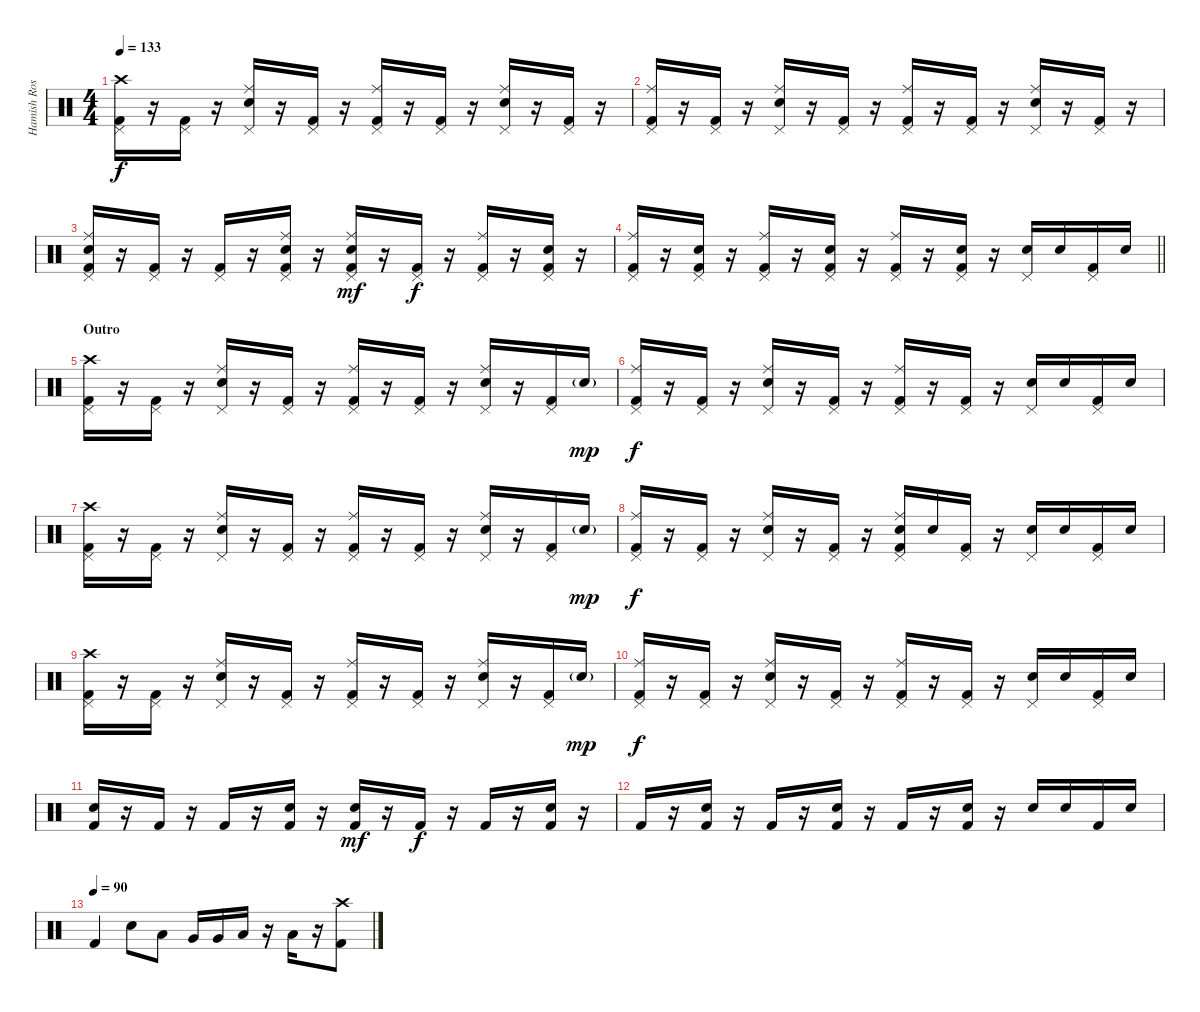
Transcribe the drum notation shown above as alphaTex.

\track ("Hamish Rosser (Main-Tune Drums Track)" "Hamish Ros") {instrument percussion}
\staff {score}
\articulation defaults
\ts (4 4)
\tempo 133
\clef neutral
\ks c
("Crash high (hit)" "Pedal Hi-Hat (hit)" "Kick (hit) 2").16{dy f} r.16 ("Pedal Hi-Hat (hit)" "Kick (hit) 2").16 r.16 ("Ride (middle)" "Pedal Hi-Hat (hit)" "Snare (hit) 2").16 r.16 ("Pedal Hi-Hat (hit)" "Kick (hit) 2").16 r.16 ("Ride (middle)" "Pedal Hi-Hat (hit)" "Kick (hit) 2").16 r.16 ("Pedal Hi-Hat (hit)" "Kick (hit) 2").16 r.16 ("Ride (middle)" "Pedal Hi-Hat (hit)" "Snare (hit) 2").16 r.16 ("Pedal Hi-Hat (hit)" "Kick (hit) 2").16 r.16 |
("Ride (middle)" "Pedal Hi-Hat (hit)" "Kick (hit) 2").16 r.16 ("Pedal Hi-Hat (hit)" "Kick (hit) 2").16 r.16 ("Ride (middle)" "Pedal Hi-Hat (hit)" "Snare (hit) 2").16 r.16 ("Pedal Hi-Hat (hit)" "Kick (hit) 2").16 r.16 ("Ride (middle)" "Pedal Hi-Hat (hit)" "Kick (hit) 2").16 r.16 ("Pedal Hi-Hat (hit)" "Kick (hit) 2").16 r.16 ("Ride (middle)" "Pedal Hi-Hat (hit)" "Snare (hit) 2").16 r.16 ("Pedal Hi-Hat (hit)" "Kick (hit) 2").16 r.16 |
("Ride (middle)" "Pedal Hi-Hat (hit)" "Snare (hit) 2" "Kick (hit) 2").16 r.16 ("Pedal Hi-Hat (hit)" "Kick (hit) 2").16 r.16 ("Pedal Hi-Hat (hit)" "Kick (hit) 2").16 r.16 ("Ride (middle)" "Pedal Hi-Hat (hit)" "Snare (hit) 2" "Kick (hit) 2").16 r.16 ("Ride (middle)" "Pedal Hi-Hat (hit)" "Snare (hit) 2" "Kick (hit) 2").16{dy mf} r.16 ("Pedal Hi-Hat (hit)" "Kick (hit) 2").16{dy f} r.16 ("Ride (middle)" "Pedal Hi-Hat (hit)" "Kick (hit) 2").16 r.16 ("Pedal Hi-Hat (hit)" "Snare (hit) 2" "Kick (hit) 2").16 r.16 |
\barLineRight lightlight
("Ride (middle)" "Pedal Hi-Hat (hit)" "Kick (hit) 2").16 r.16 ("Pedal Hi-Hat (hit)" "Snare (hit) 2" "Kick (hit) 2").16 r.16 ("Ride (middle)" "Pedal Hi-Hat (hit)" "Kick (hit) 2").16 r.16 ("Pedal Hi-Hat (hit)" "Snare (hit) 2" "Kick (hit) 2").16 r.16 ("Ride (middle)" "Pedal Hi-Hat (hit)" "Kick (hit) 2").16 r.16 ("Pedal Hi-Hat (hit)" "Snare (hit) 2" "Kick (hit) 2").16 r.16 ("Pedal Hi-Hat (hit)" "Snare (hit) 2").16 "Snare (hit) 2".16 ("Pedal Hi-Hat (hit)" "Kick (hit) 2").16 "Snare (hit) 2".16 |
\section ("" "Outro")
("Crash high (hit)" "Pedal Hi-Hat (hit)" "Kick (hit) 2").16 r.16 ("Pedal Hi-Hat (hit)" "Kick (hit) 2").16 r.16 ("Ride (middle)" "Pedal Hi-Hat (hit)" "Snare (hit) 2").16 r.16 ("Pedal Hi-Hat (hit)" "Kick (hit) 2").16 r.16 ("Ride (middle)" "Pedal Hi-Hat (hit)" "Kick (hit) 2").16 r.16 ("Pedal Hi-Hat (hit)" "Kick (hit) 2").16 r.16 ("Ride (middle)" "Pedal Hi-Hat (hit)" "Snare (hit) 2").16 r.16 ("Pedal Hi-Hat (hit)" "Kick (hit) 2").16 "Snare (hit) 2"{g}.16{dy mp} |
("Ride (middle)" "Pedal Hi-Hat (hit)" "Kick (hit) 2").16{dy f} r.16 ("Pedal Hi-Hat (hit)" "Kick (hit) 2").16 r.16 ("Ride (middle)" "Pedal Hi-Hat (hit)" "Snare (hit) 2").16 r.16 ("Pedal Hi-Hat (hit)" "Kick (hit) 2").16 r.16 ("Ride (middle)" "Pedal Hi-Hat (hit)" "Kick (hit) 2").16 r.16 ("Pedal Hi-Hat (hit)" "Kick (hit) 2").16 r.16 ("Pedal Hi-Hat (hit)" "Snare (hit) 2").16 "Snare (hit) 2".16 ("Pedal Hi-Hat (hit)" "Kick (hit) 2").16 "Snare (hit) 2".16 |
("Crash high (hit)" "Pedal Hi-Hat (hit)" "Kick (hit) 2").16 r.16 ("Pedal Hi-Hat (hit)" "Kick (hit) 2").16 r.16 ("Ride (middle)" "Pedal Hi-Hat (hit)" "Snare (hit) 2").16 r.16 ("Pedal Hi-Hat (hit)" "Kick (hit) 2").16 r.16 ("Ride (middle)" "Pedal Hi-Hat (hit)" "Kick (hit) 2").16 r.16 ("Pedal Hi-Hat (hit)" "Kick (hit) 2").16 r.16 ("Ride (middle)" "Pedal Hi-Hat (hit)" "Snare (hit) 2").16 r.16 ("Pedal Hi-Hat (hit)" "Kick (hit) 2").16 "Snare (hit) 2"{g}.16{dy mp} |
("Ride (middle)" "Pedal Hi-Hat (hit)" "Kick (hit) 2").16{dy f} r.16 ("Pedal Hi-Hat (hit)" "Kick (hit) 2").16 r.16 ("Ride (middle)" "Pedal Hi-Hat (hit)" "Snare (hit) 2").16 r.16 ("Pedal Hi-Hat (hit)" "Kick (hit) 2").16 r.16 ("Ride (middle)" "Pedal Hi-Hat (hit)" "Snare (hit) 2" "Kick (hit) 2").16 "Snare (hit) 2".16 ("Pedal Hi-Hat (hit)" "Kick (hit) 2").16 r.16 ("Pedal Hi-Hat (hit)" "Snare (hit) 2").16 "Snare (hit) 2".16 ("Pedal Hi-Hat (hit)" "Kick (hit) 2").16 "Snare (hit) 2".16 |
("Crash high (hit)" "Pedal Hi-Hat (hit)" "Kick (hit) 2").16 r.16 ("Pedal Hi-Hat (hit)" "Kick (hit) 2").16 r.16 ("Ride (middle)" "Pedal Hi-Hat (hit)" "Snare (hit) 2").16 r.16 ("Pedal Hi-Hat (hit)" "Kick (hit) 2").16 r.16 ("Ride (middle)" "Pedal Hi-Hat (hit)" "Kick (hit) 2").16 r.16 ("Pedal Hi-Hat (hit)" "Kick (hit) 2").16 r.16 ("Ride (middle)" "Pedal Hi-Hat (hit)" "Snare (hit) 2").16 r.16 ("Pedal Hi-Hat (hit)" "Kick (hit) 2").16 "Snare (hit) 2"{g}.16{dy mp} |
("Ride (middle)" "Pedal Hi-Hat (hit)" "Kick (hit) 2").16{dy f} r.16 ("Pedal Hi-Hat (hit)" "Kick (hit) 2").16 r.16 ("Ride (middle)" "Pedal Hi-Hat (hit)" "Snare (hit) 2").16 r.16 ("Pedal Hi-Hat (hit)" "Kick (hit) 2").16 r.16 ("Ride (middle)" "Pedal Hi-Hat (hit)" "Kick (hit) 2").16 r.16 ("Pedal Hi-Hat (hit)" "Kick (hit) 2").16 r.16 ("Pedal Hi-Hat (hit)" "Snare (hit) 2").16 "Snare (hit) 2".16 ("Pedal Hi-Hat (hit)" "Kick (hit) 2").16 "Snare (hit) 2".16 |
("Snare (hit) 2" "Kick (hit) 2").16 r.16 "Kick (hit) 2".16 r.16 "Kick (hit) 2".16 r.16 ("Snare (hit) 2" "Kick (hit) 2").16 r.16 ("Snare (hit) 2" "Kick (hit) 2").16{dy mf} r.16 "Kick (hit) 2".16{dy f} r.16 "Kick (hit) 2".16 r.16 ("Snare (hit) 2" "Kick (hit) 2").16 r.16 |
"Kick (hit) 2".16 r.16 ("Snare (hit) 2" "Kick (hit) 2").16 r.16 "Kick (hit) 2".16 r.16 ("Snare (hit) 2" "Kick (hit) 2").16 r.16 "Kick (hit) 2".16 r.16 ("Snare (hit) 2" "Kick (hit) 2").16 r.16 "Snare (hit) 2".16 "Snare (hit) 2".16 "Kick (hit) 2".16 "Snare (hit) 2".16 |
\tempo (90)
"Kick (hit) 2".4 "Snare (hit) 2".8 "Low Tom (hit)".8 "Very Low Tom (hit)".16 "Very Low Tom (hit)".16 "Low Floor Tom (hit)".16 r.16 "Low Floor Tom (hit)".16 r.16 ("Crash high (hit)" "Kick (hit) 2").8
